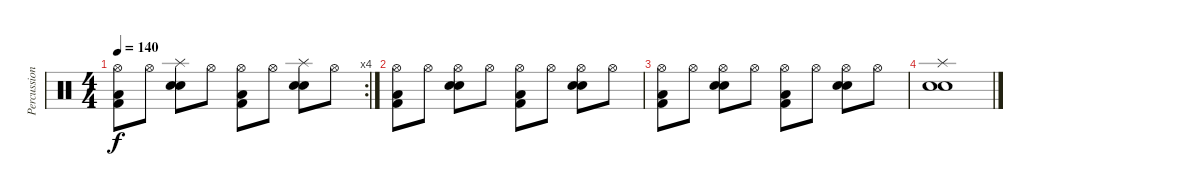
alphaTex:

\track ("Percussions" "Percussion") {instrument percussion}
\staff {score}
\articulation defaults
\rc 4
\ts (4 4)
\tempo 140
\clef neutral
\ks c
("Hi-Hat (open)" "Kick (hit) 2" "Low Floor Tom (hit)").8{dy f} "Hi-Hat (open)".8 ("Splash (hit)" "Snare (hit) 2" "Electric Snare (hit)").8 "Hi-Hat (open)".8 ("Hi-Hat (open)" "Kick (hit) 2" "Low Floor Tom (hit)").8 "Hi-Hat (open)".8 ("Splash (hit)" "Snare (hit) 2" "Electric Snare (hit)").8 "Hi-Hat (open)".8 |
("Hi-Hat (open)" "Kick (hit) 2" "Low Floor Tom (hit)").8 "Hi-Hat (open)".8 ("Hi-Hat (open)" "Snare (hit) 2" "Electric Snare (hit)").8 "Hi-Hat (open)".8 ("Hi-Hat (open)" "Kick (hit) 2" "Low Floor Tom (hit)").8 "Hi-Hat (open)".8 ("Hi-Hat (open)" "Snare (hit) 2" "Electric Snare (hit)").8 "Hi-Hat (open)".8 |
("Hi-Hat (open)" "Kick (hit) 2" "Low Floor Tom (hit)").8 "Hi-Hat (open)".8 ("Hi-Hat (open)" "Snare (hit) 2" "Electric Snare (hit)").8 "Hi-Hat (open)".8 ("Hi-Hat (open)" "Kick (hit) 2" "Low Floor Tom (hit)").8 "Hi-Hat (open)".8 ("Hi-Hat (open)" "Snare (hit) 2" "Electric Snare (hit)").8 "Hi-Hat (open)".8 |
("Splash (hit)" "Snare (hit) 2" "Electric Snare (hit)").1
